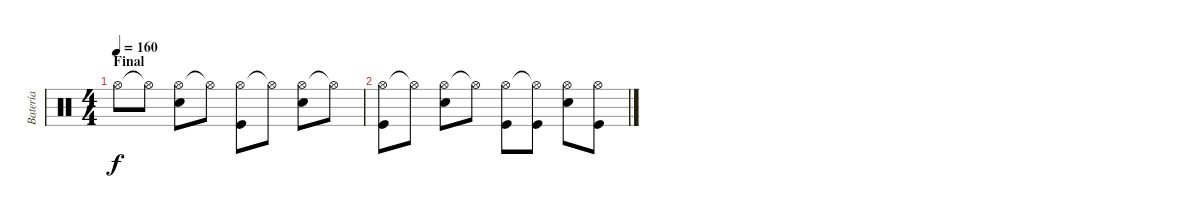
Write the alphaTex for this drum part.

\track ("Batería" "Batería") {instrument percussion}
\staff {score}
\articulation defaults
\ts (4 4)
\section ("" "Final")
\tempo 160
\clef neutral
\ks c "Hi-Hat (open)"{t}.8{dy f} "Hi-Hat (open)"{t}.8
("Hi-Hat (open)" "Electric Snare (hit)").8 "Hi-Hat (open)"{t}.8 ("Hi-Hat (open)" "Kick (hit)").8 "Hi-Hat (open)"{t}.8 ("Hi-Hat (open)" "Electric Snare (hit)").8 "Hi-Hat (open)"{t}.8 |
("Hi-Hat (open)" "Kick (hit)").8 "Hi-Hat (open)"{t}.8 ("Hi-Hat (open)" "Electric Snare (hit)").8 "Hi-Hat (open)"{t}.8 ("Hi-Hat (open)" "Kick (hit)").8 ("Hi-Hat (open)"{t} "Kick (hit)").8 ("Hi-Hat (open)" "Electric Snare (hit)").8 ("Hi-Hat (open)" "Kick (hit)").8
